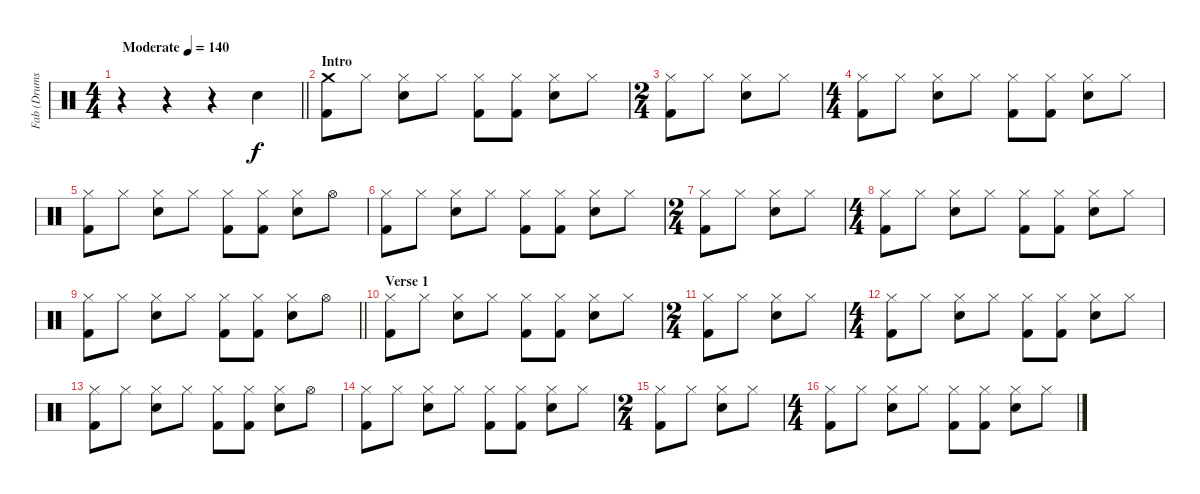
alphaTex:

\track ("Fab (Drums)" "Fab (Drums") {instrument percussion}
\staff {score}
\articulation defaults
\ts (4 4)
\tempo (140 "Moderate")
\clef neutral
\barLineRight lightlight
\ks c
r.4{dy f} r.4 r.4 "Snare (hit) 2".4 |
\section ("" "Intro")
("Crash medium (hit)" "Kick (hit) 2").8 "Hi-Hat (closed)".8 ("Hi-Hat (closed)" "Snare (hit) 2").8 "Hi-Hat (closed)".8 ("Hi-Hat (closed)" "Kick (hit) 2").8 ("Hi-Hat (closed)" "Kick (hit) 2").8 ("Hi-Hat (closed)" "Snare (hit) 2").8 "Hi-Hat (closed)".8 |
\ts (2 4)
("Hi-Hat (closed)" "Kick (hit) 2").8 "Hi-Hat (closed)".8 ("Hi-Hat (closed)" "Snare (hit) 2").8 "Hi-Hat (closed)".8 |
\ts (4 4)
("Hi-Hat (closed)" "Kick (hit) 2").8 "Hi-Hat (closed)".8 ("Hi-Hat (closed)" "Snare (hit) 2").8 "Hi-Hat (closed)".8 ("Hi-Hat (closed)" "Kick (hit) 2").8 ("Hi-Hat (closed)" "Kick (hit) 2").8 ("Hi-Hat (closed)" "Snare (hit) 2").8 "Hi-Hat (closed)".8 |
("Hi-Hat (closed)" "Kick (hit) 2").8 "Hi-Hat (closed)".8 ("Hi-Hat (closed)" "Snare (hit) 2").8 "Hi-Hat (closed)".8 ("Hi-Hat (closed)" "Kick (hit) 2").8 ("Hi-Hat (closed)" "Kick (hit) 2").8 ("Hi-Hat (closed)" "Snare (hit) 2").8 "Hi-Hat (open)".8 |
("Hi-Hat (closed)" "Kick (hit) 2").8 "Hi-Hat (closed)".8 ("Hi-Hat (closed)" "Snare (hit) 2").8 "Hi-Hat (closed)".8 ("Hi-Hat (closed)" "Kick (hit) 2").8 ("Hi-Hat (closed)" "Kick (hit) 2").8 ("Hi-Hat (closed)" "Snare (hit) 2").8 "Hi-Hat (closed)".8 |
\ts (2 4)
("Hi-Hat (closed)" "Kick (hit) 2").8 "Hi-Hat (closed)".8 ("Hi-Hat (closed)" "Snare (hit) 2").8 "Hi-Hat (closed)".8 |
\ts (4 4)
("Hi-Hat (closed)" "Kick (hit) 2").8 "Hi-Hat (closed)".8 ("Hi-Hat (closed)" "Snare (hit) 2").8 "Hi-Hat (closed)".8 ("Hi-Hat (closed)" "Kick (hit) 2").8 ("Hi-Hat (closed)" "Kick (hit) 2").8 ("Hi-Hat (closed)" "Snare (hit) 2").8 "Hi-Hat (closed)".8 |
\barLineRight lightlight
("Hi-Hat (closed)" "Kick (hit) 2").8 "Hi-Hat (closed)".8 ("Hi-Hat (closed)" "Snare (hit) 2").8 "Hi-Hat (closed)".8 ("Hi-Hat (closed)" "Kick (hit) 2").8 ("Hi-Hat (closed)" "Kick (hit) 2").8 ("Hi-Hat (closed)" "Snare (hit) 2").8 "Hi-Hat (open)".8 |
\section ("" "Verse 1")
("Hi-Hat (closed)" "Kick (hit) 2").8 "Hi-Hat (closed)".8 ("Hi-Hat (closed)" "Snare (hit) 2").8 "Hi-Hat (closed)".8 ("Hi-Hat (closed)" "Kick (hit) 2").8 ("Hi-Hat (closed)" "Kick (hit) 2").8 ("Hi-Hat (closed)" "Snare (hit) 2").8 "Hi-Hat (closed)".8 |
\ts (2 4)
("Hi-Hat (closed)" "Kick (hit) 2").8 "Hi-Hat (closed)".8 ("Hi-Hat (closed)" "Snare (hit) 2").8 "Hi-Hat (closed)".8 |
\ts (4 4)
("Hi-Hat (closed)" "Kick (hit) 2").8 "Hi-Hat (closed)".8 ("Hi-Hat (closed)" "Snare (hit) 2").8 "Hi-Hat (closed)".8 ("Hi-Hat (closed)" "Kick (hit) 2").8 ("Hi-Hat (closed)" "Kick (hit) 2").8 ("Hi-Hat (closed)" "Snare (hit) 2").8 "Hi-Hat (closed)".8 |
("Hi-Hat (closed)" "Kick (hit) 2").8 "Hi-Hat (closed)".8 ("Hi-Hat (closed)" "Snare (hit) 2").8 "Hi-Hat (closed)".8 ("Hi-Hat (closed)" "Kick (hit) 2").8 ("Hi-Hat (closed)" "Kick (hit) 2").8 ("Hi-Hat (closed)" "Snare (hit) 2").8 "Hi-Hat (open)".8 |
("Hi-Hat (closed)" "Kick (hit) 2").8 "Hi-Hat (closed)".8 ("Hi-Hat (closed)" "Snare (hit) 2").8 "Hi-Hat (closed)".8 ("Hi-Hat (closed)" "Kick (hit) 2").8 ("Hi-Hat (closed)" "Kick (hit) 2").8 ("Hi-Hat (closed)" "Snare (hit) 2").8 "Hi-Hat (closed)".8 |
\ts (2 4)
("Hi-Hat (closed)" "Kick (hit) 2").8 "Hi-Hat (closed)".8 ("Hi-Hat (closed)" "Snare (hit) 2").8 "Hi-Hat (closed)".8 |
\ts (4 4)
("Hi-Hat (closed)" "Kick (hit) 2").8 "Hi-Hat (closed)".8 ("Hi-Hat (closed)" "Snare (hit) 2").8 "Hi-Hat (closed)".8 ("Hi-Hat (closed)" "Kick (hit) 2").8 ("Hi-Hat (closed)" "Kick (hit) 2").8 ("Hi-Hat (closed)" "Snare (hit) 2").8 "Hi-Hat (closed)".8
